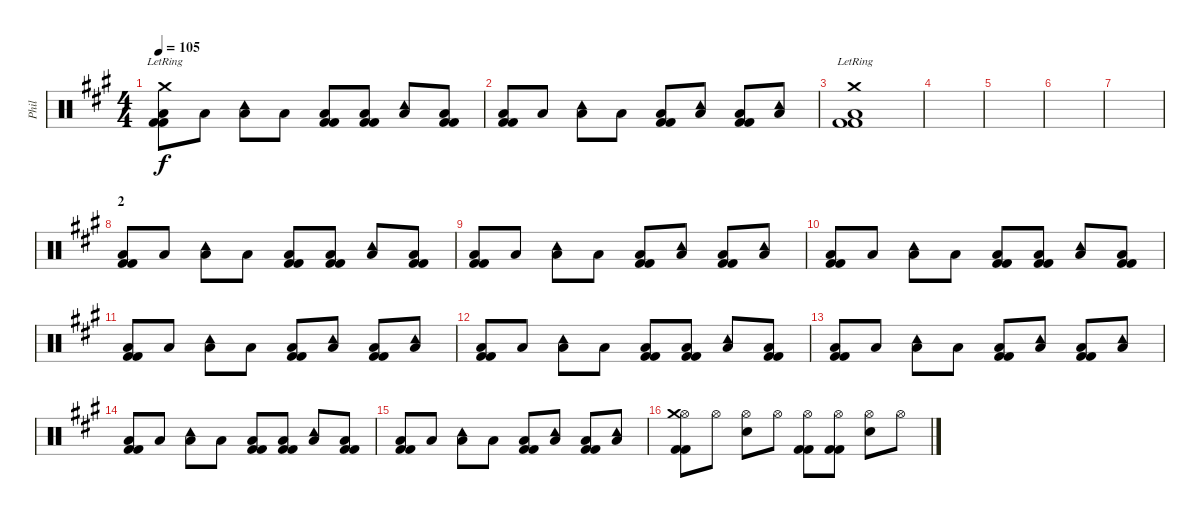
\track ("Phil" "Phil") {instrument percussion}
\staff {score}
\articulation defaults
\ts (4 4)
\tempo 105
\clef neutral
\ks a
("Kick (hit) 2" "Low Floor Tom (hit)" "Kick (hit) 2" "Crash medium (hit)"{lr}).8{dy f} "Low Floor Tom (hit)".8 ("Low Floor Tom (hit)" "Tambourine (hit)").8 "Low Floor Tom (hit)".8 ("Kick (hit) 2" "Low Floor Tom (hit)" "Kick (hit) 2").8 ("Kick (hit) 2" "Low Floor Tom (hit)" "Kick (hit) 2").8 ("Low Floor Tom (hit)" "Tambourine (hit)").8 ("Kick (hit) 2" "Low Floor Tom (hit)" "Kick (hit) 2").8 |
("Kick (hit) 2" "Low Floor Tom (hit)" "Kick (hit) 2").8 "Low Floor Tom (hit)".8 ("Low Floor Tom (hit)" "Tambourine (hit)").8 "Low Floor Tom (hit)".8 ("Kick (hit) 2" "Low Floor Tom (hit)" "Kick (hit) 2").8 ("Low Floor Tom (hit)" "Tambourine (hit)").8 ("Kick (hit) 2" "Low Floor Tom (hit)" "Kick (hit) 2").8 ("Low Floor Tom (hit)" "Tambourine (hit)").8 |
("Kick (hit) 2" "Low Floor Tom (hit)" "Kick (hit) 2" "Crash medium (hit)"{lr}).1 |
|
|
|
|
\section ("" "2")
("Kick (hit) 2" "Low Floor Tom (hit)" "Kick (hit) 2").8 "Low Floor Tom (hit)".8 ("Low Floor Tom (hit)" "Tambourine (hit)").8 "Low Floor Tom (hit)".8 ("Kick (hit) 2" "Low Floor Tom (hit)" "Kick (hit) 2").8 ("Kick (hit) 2" "Low Floor Tom (hit)" "Kick (hit) 2").8 ("Low Floor Tom (hit)" "Tambourine (hit)").8 ("Kick (hit) 2" "Low Floor Tom (hit)" "Kick (hit) 2").8 |
("Kick (hit) 2" "Low Floor Tom (hit)" "Kick (hit) 2").8 "Low Floor Tom (hit)".8 ("Low Floor Tom (hit)" "Tambourine (hit)").8 "Low Floor Tom (hit)".8 ("Kick (hit) 2" "Low Floor Tom (hit)" "Kick (hit) 2").8 ("Low Floor Tom (hit)" "Tambourine (hit)").8 ("Kick (hit) 2" "Low Floor Tom (hit)" "Kick (hit) 2").8 ("Low Floor Tom (hit)" "Tambourine (hit)").8 |
("Kick (hit) 2" "Low Floor Tom (hit)" "Kick (hit) 2").8 "Low Floor Tom (hit)".8 ("Low Floor Tom (hit)" "Tambourine (hit)").8 "Low Floor Tom (hit)".8 ("Kick (hit) 2" "Low Floor Tom (hit)" "Kick (hit) 2").8 ("Kick (hit) 2" "Low Floor Tom (hit)" "Kick (hit) 2").8 ("Low Floor Tom (hit)" "Tambourine (hit)").8 ("Kick (hit) 2" "Low Floor Tom (hit)" "Kick (hit) 2").8 |
("Kick (hit) 2" "Low Floor Tom (hit)" "Kick (hit) 2").8 "Low Floor Tom (hit)".8 ("Low Floor Tom (hit)" "Tambourine (hit)").8 "Low Floor Tom (hit)".8 ("Kick (hit) 2" "Low Floor Tom (hit)" "Kick (hit) 2").8 ("Low Floor Tom (hit)" "Tambourine (hit)").8 ("Kick (hit) 2" "Low Floor Tom (hit)" "Kick (hit) 2").8 ("Low Floor Tom (hit)" "Tambourine (hit)").8 |
("Kick (hit) 2" "Low Floor Tom (hit)" "Kick (hit) 2").8 "Low Floor Tom (hit)".8 ("Low Floor Tom (hit)" "Tambourine (hit)").8 "Low Floor Tom (hit)".8 ("Kick (hit) 2" "Low Floor Tom (hit)" "Kick (hit) 2").8 ("Kick (hit) 2" "Low Floor Tom (hit)" "Kick (hit) 2").8 ("Low Floor Tom (hit)" "Tambourine (hit)").8 ("Kick (hit) 2" "Low Floor Tom (hit)" "Kick (hit) 2").8 |
("Kick (hit) 2" "Low Floor Tom (hit)" "Kick (hit) 2").8 "Low Floor Tom (hit)".8 ("Low Floor Tom (hit)" "Tambourine (hit)").8 "Low Floor Tom (hit)".8 ("Kick (hit) 2" "Low Floor Tom (hit)" "Kick (hit) 2").8 ("Low Floor Tom (hit)" "Tambourine (hit)").8 ("Kick (hit) 2" "Low Floor Tom (hit)" "Kick (hit) 2").8 ("Low Floor Tom (hit)" "Tambourine (hit)").8 |
("Kick (hit) 2" "Low Floor Tom (hit)" "Kick (hit) 2").8 "Low Floor Tom (hit)".8 ("Low Floor Tom (hit)" "Tambourine (hit)").8 "Low Floor Tom (hit)".8 ("Kick (hit) 2" "Low Floor Tom (hit)" "Kick (hit) 2").8 ("Kick (hit) 2" "Low Floor Tom (hit)" "Kick (hit) 2").8 ("Low Floor Tom (hit)" "Tambourine (hit)").8 ("Kick (hit) 2" "Low Floor Tom (hit)" "Kick (hit) 2").8 |
("Kick (hit) 2" "Low Floor Tom (hit)" "Kick (hit) 2").8 "Low Floor Tom (hit)".8 ("Low Floor Tom (hit)" "Tambourine (hit)").8 "Low Floor Tom (hit)".8 ("Kick (hit) 2" "Low Floor Tom (hit)" "Kick (hit) 2").8 ("Low Floor Tom (hit)" "Tambourine (hit)").8 ("Kick (hit) 2" "Low Floor Tom (hit)" "Kick (hit) 2").8 ("Low Floor Tom (hit)" "Tambourine (hit)").8 |
("Kick (hit) 2" "Hi-Hat (open)" "Kick (hit) 2" "Crash medium (hit)").8 "Hi-Hat (open)".8 ("Hi-Hat (open)" "Electric Snare (hit)").8 "Hi-Hat (open)".8 ("Kick (hit) 2" "Hi-Hat (open)" "Kick (hit) 2").8 ("Kick (hit) 2" "Hi-Hat (open)" "Kick (hit) 2").8 ("Hi-Hat (open)" "Electric Snare (hit)").8 "Hi-Hat (open)".8
